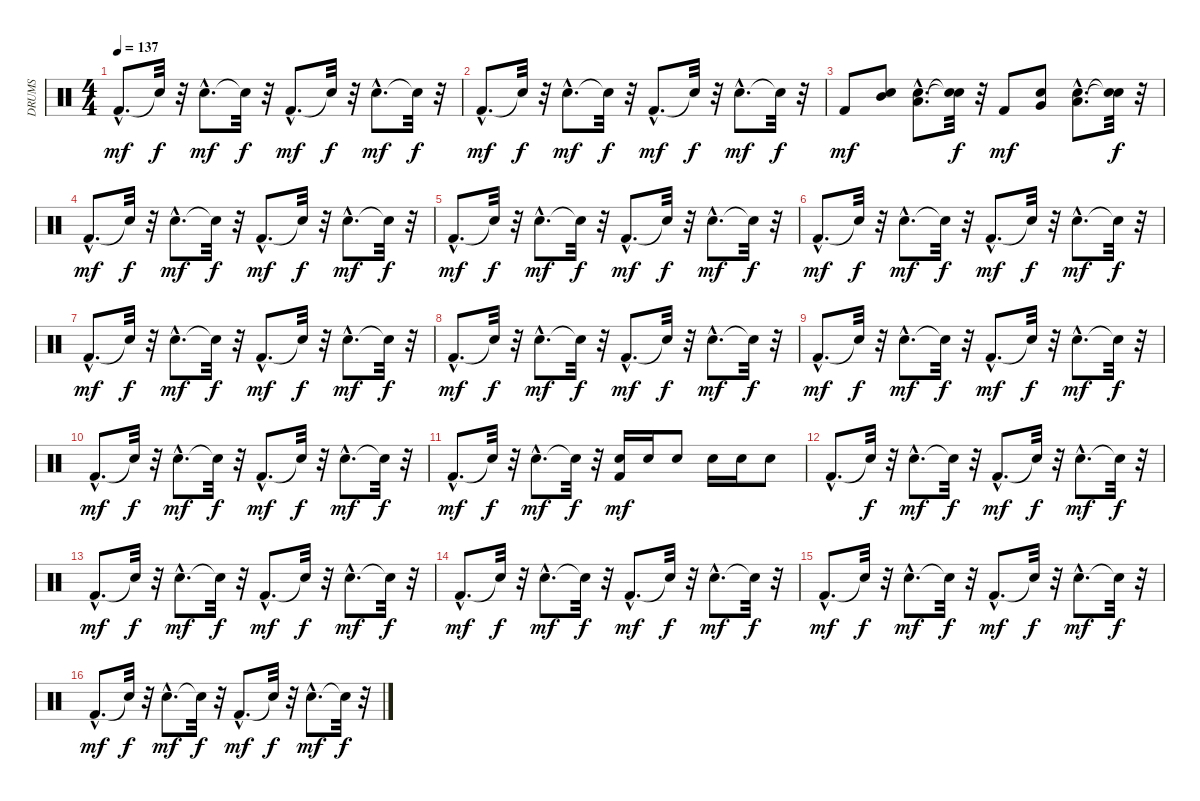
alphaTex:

\track ("DRUMS" "DRUMS") {instrument percussion}
\staff {score}
\articulation defaults
\ts (4 4)
\tempo 137
\clef neutral
\ks c "Kick (hit) 2"{hac}.8{d dy mf} "Snare (hit)"{t}.32{dy f}
r.32 "Snare (hit) 2"{hac}.8{d dy mf} "Snare (hit)"{t}.32{dy f} r.32 "Kick (hit) 2"{hac}.8{d dy mf} "Snare (hit)"{t}.32{dy f} r.32 "Snare (hit) 2"{hac}.8{d dy mf} "Snare (hit)"{t}.32{dy f} r.32 |
"Kick (hit) 2"{hac}.8{d dy mf} "Snare (hit)"{t}.32{dy f} r.32 "Snare (hit) 2"{hac}.8{d dy mf} "Snare (hit)"{t}.32{dy f} r.32 "Kick (hit) 2"{hac}.8{d dy mf} "Snare (hit)"{t}.32{dy f} r.32 "Snare (hit) 2"{hac}.8{d dy mf} "Snare (hit)"{t}.32{dy f} r.32 |
"Kick (hit) 2".8{dy mf} ("Mid Tom (hit)" "Snare (hit) 2").8 ("Low Tom (hit)"{hac} "Snare (hit) 2"{hac}).8{d} ("Snare (hit)"{t} "Snare (hit)"{t}).32{dy f} r.32 "Kick (hit) 2".8{dy mf} ("Very Low Tom (hit)" "Snare (hit) 2").8 ("Low Floor Tom (hit)"{hac} "Snare (hit) 2"{hac}).8{d} ("Snare (hit)"{t} "Snare (hit)"{t}).32{dy f} r.32 |
"Kick (hit) 2"{hac}.8{d dy mf} "Snare (hit)"{t}.32{dy f} r.32 "Snare (hit) 2"{hac}.8{d dy mf} "Snare (hit)"{t}.32{dy f} r.32 "Kick (hit) 2"{hac}.8{d dy mf} "Snare (hit)"{t}.32{dy f} r.32 "Snare (hit) 2"{hac}.8{d dy mf} "Snare (hit)"{t}.32{dy f} r.32 |
"Kick (hit) 2"{hac}.8{d dy mf} "Snare (hit)"{t}.32{dy f} r.32 "Snare (hit) 2"{hac}.8{d dy mf} "Snare (hit)"{t}.32{dy f} r.32 "Kick (hit) 2"{hac}.8{d dy mf} "Snare (hit)"{t}.32{dy f} r.32 "Snare (hit) 2"{hac}.8{d dy mf} "Snare (hit)"{t}.32{dy f} r.32 |
"Kick (hit) 2"{hac}.8{d dy mf} "Snare (hit)"{t}.32{dy f} r.32 "Snare (hit) 2"{hac}.8{d dy mf} "Snare (hit)"{t}.32{dy f} r.32 "Kick (hit) 2"{hac}.8{d dy mf} "Snare (hit)"{t}.32{dy f} r.32 "Snare (hit) 2"{hac}.8{d dy mf} "Snare (hit)"{t}.32{dy f} r.32 |
"Kick (hit) 2"{hac}.8{d dy mf} "Snare (hit)"{t}.32{dy f} r.32 "Snare (hit) 2"{hac}.8{d dy mf} "Snare (hit)"{t}.32{dy f} r.32 "Kick (hit) 2"{hac}.8{d dy mf} "Snare (hit)"{t}.32{dy f} r.32 "Snare (hit) 2"{hac}.8{d dy mf} "Snare (hit)"{t}.32{dy f} r.32 |
"Kick (hit) 2"{hac}.8{d dy mf} "Snare (hit)"{t}.32{dy f} r.32 "Snare (hit) 2"{hac}.8{d dy mf} "Snare (hit)"{t}.32{dy f} r.32 "Kick (hit) 2"{hac}.8{d dy mf} "Snare (hit)"{t}.32{dy f} r.32 "Snare (hit) 2"{hac}.8{d dy mf} "Snare (hit)"{t}.32{dy f} r.32 |
"Kick (hit) 2"{hac}.8{d dy mf} "Snare (hit)"{t}.32{dy f} r.32 "Snare (hit) 2"{hac}.8{d dy mf} "Snare (hit)"{t}.32{dy f} r.32 "Kick (hit) 2"{hac}.8{d dy mf} "Snare (hit)"{t}.32{dy f} r.32 "Snare (hit) 2"{hac}.8{d dy mf} "Snare (hit)"{t}.32{dy f} r.32 |
"Kick (hit) 2"{hac}.8{d dy mf} "Snare (hit)"{t}.32{dy f} r.32 "Snare (hit) 2"{hac}.8{d dy mf} "Snare (hit)"{t}.32{dy f} r.32 "Kick (hit) 2"{hac}.8{d dy mf} "Snare (hit)"{t}.32{dy f} r.32 "Snare (hit) 2"{hac}.8{d dy mf} "Snare (hit)"{t}.32{dy f} r.32 |
"Kick (hit) 2"{hac}.8{d dy mf} "Snare (hit)"{t}.32{dy f} r.32 "Snare (hit) 2"{hac}.8{d dy mf} "Snare (hit)"{t}.32{dy f} r.32 ("Kick (hit) 2" "Snare (hit) 2").16{dy mf} "Snare (hit) 2".16 "Snare (hit) 2".8 "Snare (hit) 2".16 "Snare (hit) 2".16 "Snare (hit) 2".8 |
"Kick (hit) 2"{hac}.8{d} "Snare (hit)"{t}.32{dy f} r.32 "Snare (hit) 2"{hac}.8{d dy mf} "Snare (hit)"{t}.32{dy f} r.32 "Kick (hit) 2"{hac}.8{d dy mf} "Snare (hit)"{t}.32{dy f} r.32 "Snare (hit) 2"{hac}.8{d dy mf} "Snare (hit)"{t}.32{dy f} r.32 |
"Kick (hit) 2"{hac}.8{d dy mf} "Snare (hit)"{t}.32{dy f} r.32 "Snare (hit) 2"{hac}.8{d dy mf} "Snare (hit)"{t}.32{dy f} r.32 "Kick (hit) 2"{hac}.8{d dy mf} "Snare (hit)"{t}.32{dy f} r.32 "Snare (hit) 2"{hac}.8{d dy mf} "Snare (hit)"{t}.32{dy f} r.32 |
"Kick (hit) 2"{hac}.8{d dy mf} "Snare (hit)"{t}.32{dy f} r.32 "Snare (hit) 2"{hac}.8{d dy mf} "Snare (hit)"{t}.32{dy f} r.32 "Kick (hit) 2"{hac}.8{d dy mf} "Snare (hit)"{t}.32{dy f} r.32 "Snare (hit) 2"{hac}.8{d dy mf} "Snare (hit)"{t}.32{dy f} r.32 |
"Kick (hit) 2"{hac}.8{d dy mf} "Snare (hit)"{t}.32{dy f} r.32 "Snare (hit) 2"{hac}.8{d dy mf} "Snare (hit)"{t}.32{dy f} r.32 "Kick (hit) 2"{hac}.8{d dy mf} "Snare (hit)"{t}.32{dy f} r.32 "Snare (hit) 2"{hac}.8{d dy mf} "Snare (hit)"{t}.32{dy f} r.32 |
"Kick (hit) 2"{hac}.8{d dy mf} "Snare (hit)"{t}.32{dy f} r.32 "Snare (hit) 2"{hac}.8{d dy mf} "Snare (hit)"{t}.32{dy f} r.32 "Kick (hit) 2"{hac}.8{d dy mf} "Snare (hit)"{t}.32{dy f} r.32 "Snare (hit) 2"{hac}.8{d dy mf} "Snare (hit)"{t}.32{dy f} r.32
